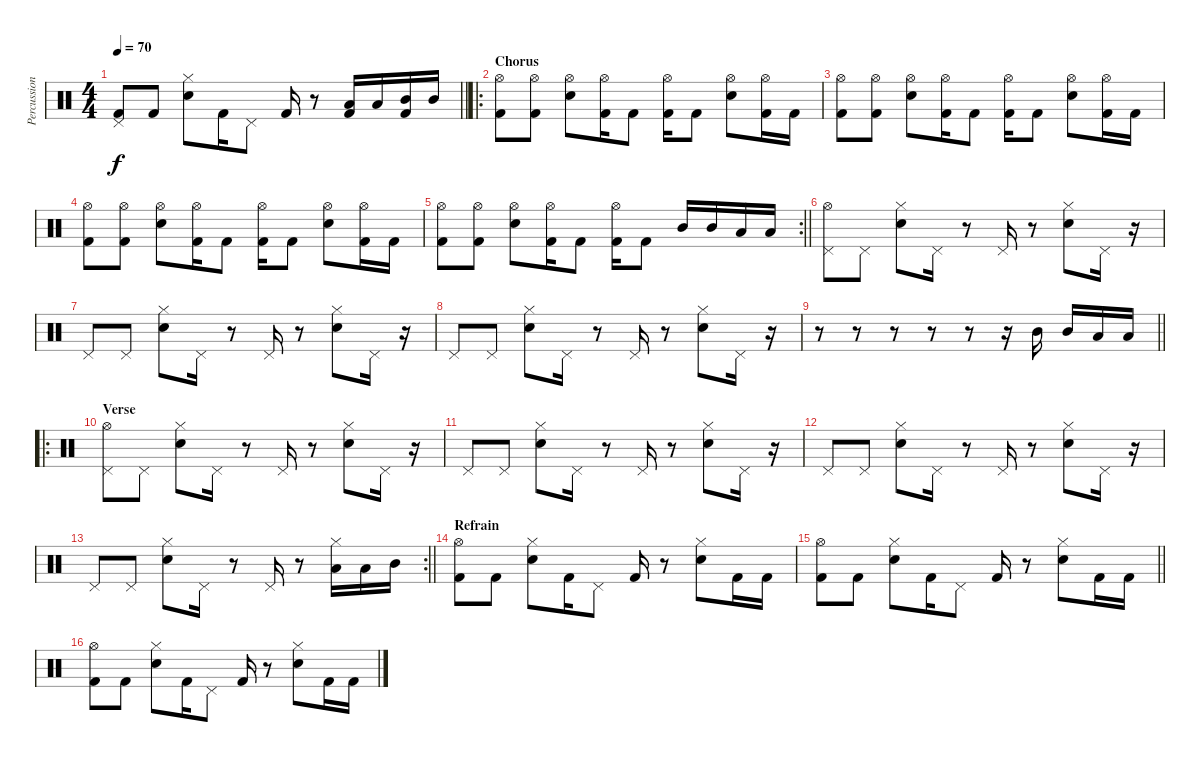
\track ("Percussion" "Percussion") {instrument percussion}
\staff {score}
\articulation defaults
\ts (4 4)
\tempo 70
\clef neutral
\barLineRight lightlight
\ks c
("Kick (hit) 2" "Pedal Hi-Hat (hit)").8{dy f} "Kick (hit) 2".8 ("Hi-Hat (closed)" "Electric Snare (hit)").8 "Kick (hit) 2".16 "Pedal Hi-Hat (hit)".8 "Kick (hit) 2".16 r.8 ("Low Tom (hit)" "Kick (hit) 2").16 "Low Tom (hit)".16 ("Mid Tom (hit)" "Kick (hit) 2").16 "Mid Tom (hit)".16 |
\ro
\section ("" "Chorus")
("Kick (hit) 2" "Hi-Hat (open)").8 ("Kick (hit) 2" "Hi-Hat (open)").8 ("Snare (hit) 2" "Hi-Hat (open)").8 ("Kick (hit) 2" "Hi-Hat (open)").16 "Kick (hit) 2".8 ("Kick (hit) 2" "Hi-Hat (open)").16 "Kick (hit) 2".8 ("Snare (hit) 2" "Hi-Hat (open)").8 ("Kick (hit) 2" "Hi-Hat (open)").16 "Kick (hit) 2".16 |
("Kick (hit) 2" "Hi-Hat (open)").8 ("Kick (hit) 2" "Hi-Hat (open)").8 ("Snare (hit) 2" "Hi-Hat (open)").8 ("Kick (hit) 2" "Hi-Hat (open)").16 "Kick (hit) 2".8 ("Kick (hit) 2" "Hi-Hat (open)").16 "Kick (hit) 2".8 ("Snare (hit) 2" "Hi-Hat (open)").8 ("Kick (hit) 2" "Hi-Hat (open)").16 "Kick (hit) 2".16 |
("Kick (hit) 2" "Hi-Hat (open)").8 ("Kick (hit) 2" "Hi-Hat (open)").8 ("Snare (hit) 2" "Hi-Hat (open)").8 ("Kick (hit) 2" "Hi-Hat (open)").16 "Kick (hit) 2".8 ("Kick (hit) 2" "Hi-Hat (open)").16 "Kick (hit) 2".8 ("Snare (hit) 2" "Hi-Hat (open)").8 ("Kick (hit) 2" "Hi-Hat (open)").16 "Kick (hit) 2".16 |
\rc 2
\barLineRight lightlight
("Kick (hit) 2" "Hi-Hat (open)").8 ("Kick (hit) 2" "Hi-Hat (open)").8 ("Snare (hit) 2" "Hi-Hat (open)").8 ("Kick (hit) 2" "Hi-Hat (open)").16 "Kick (hit) 2".8 ("Kick (hit) 2" "Hi-Hat (open)").16 "Kick (hit) 2".8 "Mid Tom (hit)".16 "Mid Tom (hit)".16 "Low Tom (hit)".16 "Low Tom (hit)".16 |
("Pedal Hi-Hat (hit)" "Hi-Hat (open)").8 "Pedal Hi-Hat (hit)".8 ("Hi-Hat (closed)" "Snare (hit) 2").8 "Pedal Hi-Hat (hit)".16 r.8 "Pedal Hi-Hat (hit)".16 r.8 ("Hi-Hat (closed)" "Snare (hit) 2").8 "Pedal Hi-Hat (hit)".16 r.16 |
"Pedal Hi-Hat (hit)".8 "Pedal Hi-Hat (hit)".8 ("Hi-Hat (closed)" "Snare (hit) 2").8 "Pedal Hi-Hat (hit)".16 r.8 "Pedal Hi-Hat (hit)".16 r.8 ("Hi-Hat (closed)" "Snare (hit) 2").8 "Pedal Hi-Hat (hit)".16 r.16 |
"Pedal Hi-Hat (hit)".8 "Pedal Hi-Hat (hit)".8 ("Hi-Hat (closed)" "Snare (hit) 2").8 "Pedal Hi-Hat (hit)".16 r.8 "Pedal Hi-Hat (hit)".16 r.8 ("Hi-Hat (closed)" "Snare (hit) 2").8 "Pedal Hi-Hat (hit)".16 r.16 |
\barLineRight lightlight
r.8 r.8 r.8 r.8 r.8 r.16 "Mid Tom (hit)".16 "Mid Tom (hit)".16 "Low Tom (hit)".16 "Low Tom (hit)".16 |
\ro
\section ("" "Verse")
("Pedal Hi-Hat (hit)" "Hi-Hat (open)").8 "Pedal Hi-Hat (hit)".8 ("Hi-Hat (closed)" "Snare (hit) 2").8 "Pedal Hi-Hat (hit)".16 r.8 "Pedal Hi-Hat (hit)".16 r.8 ("Hi-Hat (closed)" "Snare (hit) 2").8 "Pedal Hi-Hat (hit)".16 r.16 |
"Pedal Hi-Hat (hit)".8 "Pedal Hi-Hat (hit)".8 ("Hi-Hat (closed)" "Snare (hit) 2").8 "Pedal Hi-Hat (hit)".16 r.8 "Pedal Hi-Hat (hit)".16 r.8 ("Hi-Hat (closed)" "Snare (hit) 2").8 "Pedal Hi-Hat (hit)".16 r.16 |
"Pedal Hi-Hat (hit)".8 "Pedal Hi-Hat (hit)".8 ("Hi-Hat (closed)" "Snare (hit) 2").8 "Pedal Hi-Hat (hit)".16 r.8 "Pedal Hi-Hat (hit)".16 r.8 ("Hi-Hat (closed)" "Snare (hit) 2").8 "Pedal Hi-Hat (hit)".16 r.16 |
\rc 2
\barLineRight lightlight "Pedal Hi-Hat (hit)".8 "Pedal Hi-Hat (hit)".8
("Hi-Hat (closed)" "Snare (hit) 2").8 "Pedal Hi-Hat (hit)".16 r.8 "Pedal Hi-Hat (hit)".16 r.8 ("Hi-Hat (closed)" "Low Tom (hit)").16 "Low Tom (hit)".16 "Mid Tom (hit)".16 |
\section ("" "Refrain")
("Kick (hit) 2" "Hi-Hat (open)").8 "Kick (hit) 2".8 ("Hi-Hat (closed)" "Electric Snare (hit)").8 "Kick (hit) 2".16 "Pedal Hi-Hat (hit)".8 "Kick (hit) 2".16 r.8 ("Hi-Hat (closed)" "Electric Snare (hit)").8 "Kick (hit) 2".16 "Kick (hit) 2".16 |
\barLineRight lightlight
("Kick (hit) 2" "Hi-Hat (open)").8 "Kick (hit) 2".8 ("Hi-Hat (closed)" "Electric Snare (hit)").8 "Kick (hit) 2".16 "Pedal Hi-Hat (hit)".8 "Kick (hit) 2".16 r.8 ("Hi-Hat (closed)" "Electric Snare (hit)").8 "Kick (hit) 2".16 "Kick (hit) 2".16 |
("Kick (hit) 2" "Hi-Hat (open)").8 "Kick (hit) 2".8 ("Hi-Hat (closed)" "Electric Snare (hit)").8 "Kick (hit) 2".16 "Pedal Hi-Hat (hit)".8 "Kick (hit) 2".16 r.8 ("Hi-Hat (closed)" "Electric Snare (hit)").8 "Kick (hit) 2".16 "Kick (hit) 2".16
